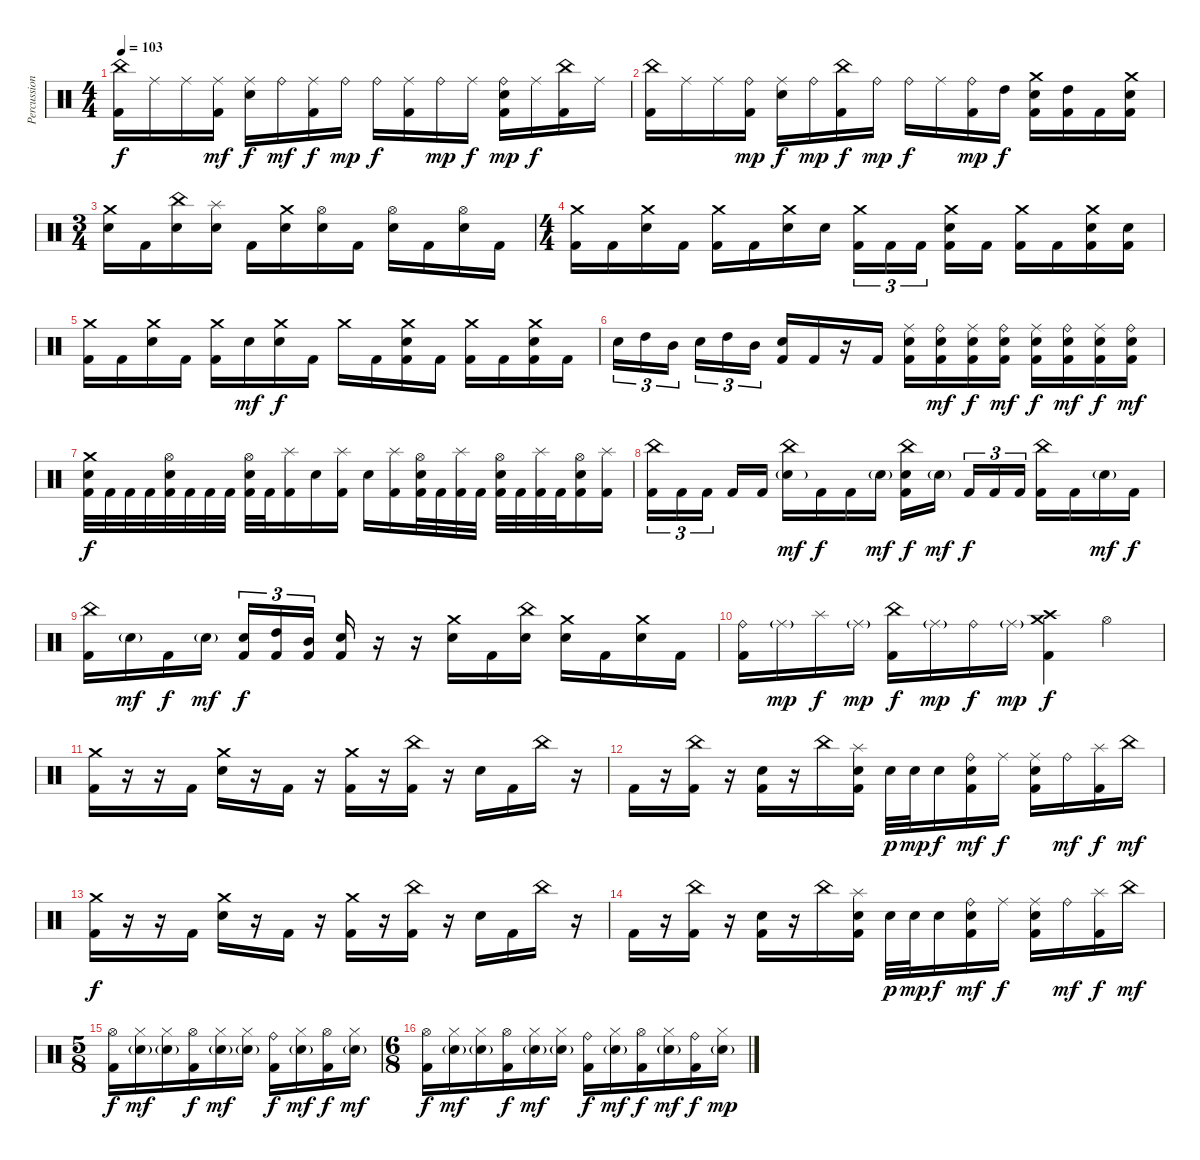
\track ("Percussion" "Percussion") {instrument percussion}
\staff {score}
\articulation defaults
\ts (4 4)
\tempo 103
\clef neutral
\ks c
("China (hit)" "Kick (hit) 2").16{dy f} "Ride (middle)".16 "Ride (middle)".16 ("Ride (middle)" "Kick (hit) 2").16{dy mf} ("Ride (middle)" "Electric Snare (hit)").16{dy f} "Ride (bell)".16{dy mf} ("Ride (middle)" "Kick (hit) 2").16{dy f} "Ride (bell)".16{dy mp} "Ride (bell)".16{dy f} ("Ride (middle)" "Kick (hit) 2").16 "Ride (bell)".16{dy mp} "Ride (middle)".16{dy f} ("Ride (bell)" "Electric Snare (hit)" "Kick (hit) 2").16{dy mp} "Ride (middle)".16{dy f} ("China (hit)" "Kick (hit) 2").16 "Ride (middle)".16 |
("China (hit)" "Kick (hit) 2").16 "Ride (middle)".16 "Ride (middle)".16 ("Ride (bell)" "Kick (hit) 2").16{dy mp} ("Ride (middle)" "Electric Snare (hit)").16{dy f} "Ride (bell)".16{dy mp} ("China (hit)" "Kick (hit) 2").16{dy f} "Ride (bell)".16{dy mp} "Ride (bell)".16{dy f} "Ride (middle)".16 ("Ride (bell)" "Kick (hit) 2").16{dy mp} "High Tom (hit)".16{dy f} ("Crash medium (hit)" "Electric Snare (hit)" "Kick (hit) 2").16 ("High Tom (hit)" "Kick (hit) 2").16 "Kick (hit) 2".16 ("Crash medium (hit)" "Electric Snare (hit)" "Kick (hit) 2").16 |
\ts (3 4)
("Crash medium (hit)" "Electric Snare (hit)").16 "Kick (hit) 2".16 ("China (hit)" "Electric Snare (hit)").16 ("Splash (hit)" "Electric Snare (hit)").16 "Kick (hit) 2".16 ("Crash medium (hit)" "Electric Snare (hit)").16 ("Hi-Hat (open)" "Electric Snare (hit)").16 "Kick (hit) 2".16 ("Hi-Hat (open)" "Electric Snare (hit)").16 "Kick (hit) 2".16 ("Hi-Hat (open)" "Electric Snare (hit)").16 "Kick (hit) 2".16 |
\ts (4 4)
("Crash medium (hit)" "Kick (hit) 2").16 "Kick (hit) 2".16 ("Crash medium (hit)" "Electric Snare (hit)").16 "Kick (hit) 2".16 ("Crash medium (hit)" "Kick (hit) 2").16 "Kick (hit) 2".16 ("Crash medium (hit)" "Electric Snare (hit)").16 "Electric Snare (hit)".16 ("Crash medium (hit)" "Kick (hit) 2").16{tu (3 2)} "Kick (hit) 2".16{tu (3 2)} "Kick (hit) 2".16{tu (3 2) beam splitsecondary} ("Crash medium (hit)" "Electric Snare (hit)" "Kick (hit) 2").16 "Kick (hit) 2".16 ("Crash medium (hit)" "Kick (hit) 2").16 "Kick (hit) 2".16 ("Crash medium (hit)" "Electric Snare (hit)" "Kick (hit) 2").16 ("Electric Snare (hit)" "Kick (hit) 2").16 |
("Crash medium (hit)" "Kick (hit) 2").16 "Kick (hit) 2".16 ("Crash medium (hit)" "Electric Snare (hit)").16 "Kick (hit) 2".16 ("Crash medium (hit)" "Kick (hit) 2").16 "Electric Snare (hit)".16{dy mf} ("Crash medium (hit)" "Electric Snare (hit)").16{dy f} "Kick (hit) 2".16 "Crash medium (hit)".16 "Kick (hit) 2".16 ("Crash medium (hit)" "Electric Snare (hit)" "Kick (hit) 2").16 "Kick (hit) 2".16 ("Crash medium (hit)" "Kick (hit) 2").16 "Kick (hit) 2".16 ("Crash medium (hit)" "Electric Snare (hit)" "Kick (hit) 2").16 "Kick (hit) 2".16 |
"Electric Snare (hit)".16{tu (3 2)} "High Tom (hit)".16{tu (3 2)} "Mid Tom (hit)".16{tu (3 2) beam splitsecondary} "Electric Snare (hit)".16{tu (3 2)} "High Tom (hit)".16{tu (3 2)} "Mid Tom (hit)".16{tu (3 2)} ("Electric Snare (hit)" "Kick (hit) 2").16 "Kick (hit) 2".16 r.16 "Kick (hit) 2".16 ("Ride (middle)" "Electric Snare (hit)" "Kick (hit) 2").16 ("Ride (bell)" "Electric Snare (hit)" "Kick (hit) 2").16{dy mf} ("Ride (middle)" "Electric Snare (hit)" "Kick (hit) 2").16{dy f} ("Ride (bell)" "Electric Snare (hit)" "Kick (hit) 2").16{dy mf} ("Ride (middle)" "Electric Snare (hit)" "Kick (hit) 2").16{dy f} ("Ride (bell)" "Electric Snare (hit)" "Kick (hit) 2").16{dy mf} ("Ride (middle)" "Electric Snare (hit)" "Kick (hit) 2").16{dy f} ("Ride (bell)" "Electric Snare (hit)" "Kick (hit) 2").16{dy mf} |
("Crash medium (hit)" "Electric Snare (hit)" "Kick (hit) 2").32{dy f} "Kick (hit) 2".32 "Kick (hit) 2".32 "Kick (hit) 2".32 ("Hi-Hat (open)" "Electric Snare (hit)" "Kick (hit) 2").32 "Kick (hit) 2".32 "Kick (hit) 2".32 "Kick (hit) 2".32 ("Hi-Hat (open)" "Electric Snare (hit)" "Kick (hit) 2").32 "Kick (hit) 2".32 ("Splash (hit)" "Kick (hit) 2").16 "Electric Snare (hit)".16 ("Splash (hit)" "Kick (hit) 2").16 "Electric Snare (hit)".16 ("Splash (hit)" "Kick (hit) 2").16 ("Hi-Hat (open)" "Electric Snare (hit)" "Kick (hit) 2").32 "Kick (hit) 2".32 ("Splash (hit)" "Kick (hit) 2").32 "Kick (hit) 2".32 ("Hi-Hat (open)" "Electric Snare (hit)" "Kick (hit) 2").32 "Kick (hit) 2".32 ("Splash (hit)" "Kick (hit) 2").32 "Kick (hit) 2".32 ("Hi-Hat (open)" "Electric Snare (hit)" "Kick (hit) 2").16 ("Splash (hit)" "Kick (hit) 2").16 |
("China (hit)" "Kick (hit) 2").16{tu (3 2)} "Kick (hit) 2".16{tu (3 2)} "Kick (hit) 2".16{tu (3 2) beam splitsecondary} "Kick (hit) 2".16 "Kick (hit) 2".16 ("China (hit)" "Electric Snare (hit)"{g}).16{dy mf} "Kick (hit) 2".16{dy f} "Kick (hit) 2".16 "Electric Snare (hit)"{g}.16{dy mf} ("China (hit)" "Electric Snare (hit)" "Kick (hit) 2").16{dy f} "Electric Snare (hit)"{g}.16{dy mf beam splitsecondary} "Kick (hit) 2".16{tu (3 2) dy f} "Kick (hit) 2".16{tu (3 2)} "Kick (hit) 2".16{tu (3 2)} ("China (hit)" "Kick (hit) 2").16 "Kick (hit) 2".16 "Electric Snare (hit)"{g}.16{dy mf} "Kick (hit) 2".16{dy f} |
("China (hit)" "Kick (hit) 2").16 "Electric Snare (hit)"{g}.16{dy mf} "Kick (hit) 2".16{dy f} "Electric Snare (hit)"{g}.16{dy mf} ("Electric Snare (hit)" "Kick (hit) 2").16{tu (3 2) dy f} ("High Tom (hit)" "Kick (hit) 2").16{tu (3 2)} ("Mid Tom (hit)" "Kick (hit) 2").16{tu (3 2) beam splitsecondary} ("Electric Snare (hit)" "Kick (hit) 2").16 r.16 r.16 ("Crash medium (hit)" "Electric Snare (hit)").16 "Kick (hit) 2".16 ("China (hit)" "Electric Snare (hit)").16 ("Crash medium (hit)" "Electric Snare (hit)").16 "Kick (hit) 2".16 ("Crash medium (hit)" "Electric Snare (hit)").16 "Kick (hit) 2".16 |
("Ride (bell)" "Kick (hit) 2").16 "Ride (middle)"{g}.16{dy mp} "Splash (hit)".16{dy f} "Ride (middle)"{g}.16{dy mp} ("China (hit)" "Kick (hit) 2").16{dy f} "Ride (middle)"{g}.16{dy mp} "Ride (bell)".16{dy f} "Ride (middle)"{g}.16{dy mp} ("Crash medium (hit)" "Crash high (hit)" "Kick (hit) 2").4{dy f} "Hi-Hat (open)".4 |
("Crash medium (hit)" "Kick (hit) 2").16 r.16 r.16 "Kick (hit) 2".16 ("Crash medium (hit)" "Electric Snare (hit)").16 r.16 "Kick (hit) 2".16 r.16 ("Crash medium (hit)" "Kick (hit) 2").16 r.16 ("China (hit)" "Kick (hit) 2").16 r.16 "Electric Snare (hit)".16 "Kick (hit) 2".16 "China (hit)".16 r.16 |
"Kick (hit) 2".16 r.16 ("China (hit)" "Kick (hit) 2").16 r.16 ("Electric Snare (hit)" "Kick (hit) 2").16 r.16 "China (hit)".16 ("Splash (hit)" "Electric Snare (hit)" "Kick (hit) 2").16 "Electric Snare (hit)".32{dy p} "Electric Snare (hit)".32{dy mp} "Electric Snare (hit)".16{dy f} ("Ride (bell)" "Electric Snare (hit)" "Kick (hit) 2").16{dy mf} "Ride (middle)".16{dy f} ("Ride (middle)" "Electric Snare (hit)" "Kick (hit) 2").16 "Ride (bell)".16{dy mf} ("Splash (hit)" "Kick (hit) 2").16{dy f} "China (hit)".16{dy mf} |
("Crash medium (hit)" "Kick (hit) 2").16{dy f} r.16 r.16 "Kick (hit) 2".16 ("Crash medium (hit)" "Electric Snare (hit)").16 r.16 "Kick (hit) 2".16 r.16 ("Crash medium (hit)" "Kick (hit) 2").16 r.16 ("China (hit)" "Kick (hit) 2").16 r.16 "Electric Snare (hit)".16 "Kick (hit) 2".16 "China (hit)".16 r.16 |
"Kick (hit) 2".16 r.16 ("China (hit)" "Kick (hit) 2").16 r.16 ("Electric Snare (hit)" "Kick (hit) 2").16 r.16 "China (hit)".16 ("Splash (hit)" "Electric Snare (hit)" "Kick (hit) 2").16 "Electric Snare (hit)".32{dy p} "Electric Snare (hit)".32{dy mp} "Electric Snare (hit)".16{dy f} ("Ride (bell)" "Electric Snare (hit)" "Kick (hit) 2").16{dy mf} "Ride (middle)".16{dy f} ("Ride (middle)" "Electric Snare (hit)" "Kick (hit) 2").16 "Ride (bell)".16{dy mf} ("Splash (hit)" "Kick (hit) 2").16{dy f} "China (hit)".16{dy mf} |
\ts (5 8)
("Hi-Hat (open)" "Kick (hit) 2").16{dy f} ("Hi-Hat (closed)" "Electric Snare (hit)"{g}).16{dy mf} ("Hi-Hat (closed)" "Electric Snare (hit)"{g}).16 ("Hi-Hat (open)" "Kick (hit) 2").16{dy f} ("Hi-Hat (closed)" "Electric Snare (hit)"{g}).16{dy mf} ("Hi-Hat (closed)" "Electric Snare (hit)"{g}).16 ("Ride (bell)" "Kick (hit) 2").16{dy f} ("Hi-Hat (closed)" "Electric Snare (hit)"{g}).16{dy mf} ("Hi-Hat (open)" "Kick (hit) 2").16{dy f} ("Hi-Hat (closed)" "Electric Snare (hit)"{g}).16{dy mf} |
\ts (6 8)
("Hi-Hat (open)" "Kick (hit) 2").16{dy f} ("Hi-Hat (closed)" "Electric Snare (hit)"{g}).16{dy mf} ("Hi-Hat (closed)" "Electric Snare (hit)"{g}).16 ("Hi-Hat (open)" "Kick (hit) 2").16{dy f} ("Hi-Hat (closed)" "Electric Snare (hit)"{g}).16{dy mf} ("Hi-Hat (closed)" "Electric Snare (hit)"{g}).16 ("Ride (bell)" "Kick (hit) 2").16{dy f} ("Hi-Hat (closed)" "Electric Snare (hit)"{g}).16{dy mf} ("Hi-Hat (open)" "Kick (hit) 2").16{dy f} ("Hi-Hat (closed)" "Electric Snare (hit)"{g}).16{dy mf} ("Ride (bell)" "Kick (hit) 2").16{dy f} ("Hi-Hat (closed)" "Electric Snare (hit)"{g}).16{dy mp}
